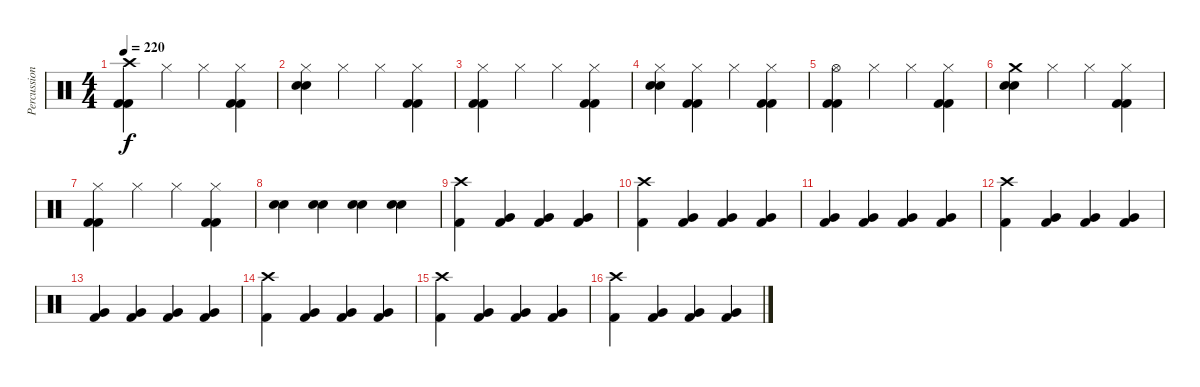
\track ("Percussion" "Percussion") {instrument percussion}
\staff {score}
\articulation defaults
\ts (4 4)
\tempo 220
\clef neutral
\ks c
("Crash high (hit)" "Kick (hit) 2" "Kick (hit) 2").4{dy f} "Hi-Hat (closed)".4 "Hi-Hat (closed)".4 ("Hi-Hat (closed)" "Kick (hit) 2" "Kick (hit) 2").4 |
("Hi-Hat (closed)" "Electric Snare (hit)" "Electric Snare (hit)").4 "Hi-Hat (closed)".4 "Hi-Hat (closed)".4 ("Hi-Hat (closed)" "Kick (hit) 2" "Kick (hit) 2").4 |
("Hi-Hat (closed)" "Kick (hit) 2" "Kick (hit) 2").4 "Hi-Hat (closed)".4 "Hi-Hat (closed)".4 ("Hi-Hat (closed)" "Kick (hit) 2" "Kick (hit) 2").4 |
("Hi-Hat (closed)" "Electric Snare (hit)" "Electric Snare (hit)").4 ("Hi-Hat (closed)" "Kick (hit) 2" "Kick (hit) 2").4 "Hi-Hat (closed)".4 ("Hi-Hat (closed)" "Kick (hit) 2" "Kick (hit) 2").4 |
("Hi-Hat (open)" "Kick (hit) 2" "Kick (hit) 2").4 "Hi-Hat (closed)".4 "Hi-Hat (closed)".4 ("Hi-Hat (closed)" "Kick (hit) 2" "Kick (hit) 2").4 |
("Crash medium (hit)" "Electric Snare (hit)" "Electric Snare (hit)").4 "Hi-Hat (closed)".4 "Hi-Hat (closed)".4 ("Hi-Hat (closed)" "Kick (hit) 2" "Kick (hit) 2").4 |
("Hi-Hat (closed)" "Kick (hit) 2" "Kick (hit) 2").4 "Hi-Hat (closed)".4 "Hi-Hat (closed)".4 ("Hi-Hat (closed)" "Kick (hit) 2" "Kick (hit) 2").4 |
("Electric Snare (hit)" "Electric Snare (hit)").4 ("Electric Snare (hit)" "Electric Snare (hit)").4 ("Electric Snare (hit)" "Electric Snare (hit)").4 ("Electric Snare (hit)" "Electric Snare (hit)").4 |
("Crash high (hit)" "Kick (hit) 2").4 ("Very Low Tom (hit)" "Kick (hit) 2").4 ("Very Low Tom (hit)" "Kick (hit) 2").4 ("Very Low Tom (hit)" "Kick (hit) 2").4 |
("Crash high (hit)" "Kick (hit) 2").4 ("Very Low Tom (hit)" "Kick (hit) 2").4 ("Very Low Tom (hit)" "Kick (hit) 2").4 ("Very Low Tom (hit)" "Kick (hit) 2").4 |
("Very Low Tom (hit)" "Kick (hit) 2").4 ("Very Low Tom (hit)" "Kick (hit) 2").4 ("Very Low Tom (hit)" "Kick (hit) 2").4 ("Very Low Tom (hit)" "Kick (hit) 2").4 |
("Crash high (hit)" "Kick (hit) 2").4 ("Very Low Tom (hit)" "Kick (hit) 2").4 ("Very Low Tom (hit)" "Kick (hit) 2").4 ("Very Low Tom (hit)" "Kick (hit) 2").4 |
("Very Low Tom (hit)" "Kick (hit) 2").4 ("Very Low Tom (hit)" "Kick (hit) 2").4 ("Very Low Tom (hit)" "Kick (hit) 2").4 ("Very Low Tom (hit)" "Kick (hit) 2").4 |
("Crash high (hit)" "Kick (hit) 2").4 ("Very Low Tom (hit)" "Kick (hit) 2").4 ("Very Low Tom (hit)" "Kick (hit) 2").4 ("Very Low Tom (hit)" "Kick (hit) 2").4 |
("Crash high (hit)" "Kick (hit) 2").4 ("Very Low Tom (hit)" "Kick (hit) 2").4 ("Very Low Tom (hit)" "Kick (hit) 2").4 ("Very Low Tom (hit)" "Kick (hit) 2").4 |
("Crash high (hit)" "Kick (hit) 2").4 ("Very Low Tom (hit)" "Kick (hit) 2").4 ("Very Low Tom (hit)" "Kick (hit) 2").4 ("Very Low Tom (hit)" "Kick (hit) 2").4
